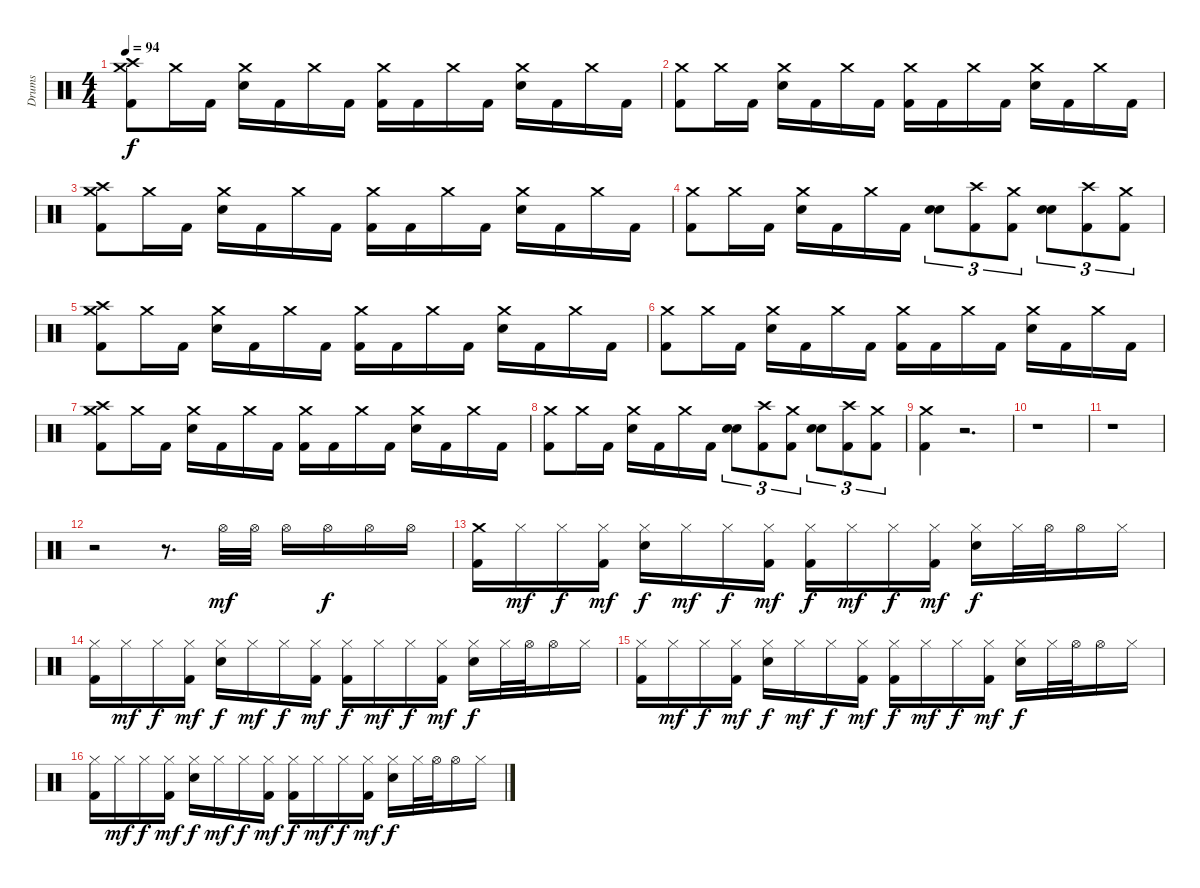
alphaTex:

\track ("Drums" "Drums") {instrument percussion}
\staff {score}
\articulation defaults
\ts (4 4)
\tempo 94
\clef neutral
\ks c
("Crash high (hit)" "Crash medium (hit)" "Kick (hit) 2").8{dy f} "Crash medium (hit)".16 "Kick (hit) 2".16 ("Crash medium (hit)" "Electric Snare (hit)").16 "Kick (hit) 2".16 "Crash medium (hit)".16 "Kick (hit) 2".16 ("Crash medium (hit)" "Kick (hit) 2").16 "Kick (hit) 2".16 "Crash medium (hit)".16 "Kick (hit) 2".16 ("Electric Snare (hit)" "Crash medium (hit)").16 "Kick (hit) 2".16 "Crash medium (hit)".16 "Kick (hit) 2".16 |
("Crash medium (hit)" "Kick (hit) 2").8 "Crash medium (hit)".16 "Kick (hit) 2".16 ("Crash medium (hit)" "Electric Snare (hit)").16 "Kick (hit) 2".16 "Crash medium (hit)".16 "Kick (hit) 2".16 ("Crash medium (hit)" "Kick (hit) 2").16 "Kick (hit) 2".16 "Crash medium (hit)".16 "Kick (hit) 2".16 ("Electric Snare (hit)" "Crash medium (hit)").16 "Kick (hit) 2".16 "Crash medium (hit)".16 "Kick (hit) 2".16 |
("Crash high (hit)" "Crash medium (hit)" "Kick (hit) 2").8 "Crash medium (hit)".16 "Kick (hit) 2".16 ("Crash medium (hit)" "Electric Snare (hit)").16 "Kick (hit) 2".16 "Crash medium (hit)".16 "Kick (hit) 2".16 ("Crash medium (hit)" "Kick (hit) 2").16 "Kick (hit) 2".16 "Crash medium (hit)".16 "Kick (hit) 2".16 ("Electric Snare (hit)" "Crash medium (hit)").16 "Kick (hit) 2".16 "Crash medium (hit)".16 "Kick (hit) 2".16 |
("Crash medium (hit)" "Kick (hit) 2").8 "Crash medium (hit)".16 "Kick (hit) 2".16 ("Crash medium (hit)" "Electric Snare (hit)").16 "Kick (hit) 2".16 "Crash medium (hit)".16 "Kick (hit) 2".16 ("Snare (hit) 2" "Electric Snare (hit)").8{tu (3 2)} ("Crash high (hit)" "Kick (hit) 2").8{tu (3 2)} ("Crash medium (hit)" "Kick (hit) 2").8{tu (3 2)} ("Snare (hit) 2" "Electric Snare (hit)").8{tu (3 2)} ("Crash high (hit)" "Kick (hit) 2").8{tu (3 2)} ("Crash medium (hit)" "Kick (hit) 2").8{tu (3 2)} |
("Crash high (hit)" "Crash medium (hit)" "Kick (hit) 2").8 "Crash medium (hit)".16 "Kick (hit) 2".16 ("Crash medium (hit)" "Electric Snare (hit)").16 "Kick (hit) 2".16 "Crash medium (hit)".16 "Kick (hit) 2".16 ("Crash medium (hit)" "Kick (hit) 2").16 "Kick (hit) 2".16 "Crash medium (hit)".16 "Kick (hit) 2".16 ("Electric Snare (hit)" "Crash medium (hit)").16 "Kick (hit) 2".16 "Crash medium (hit)".16 "Kick (hit) 2".16 |
("Crash medium (hit)" "Kick (hit) 2").8 "Crash medium (hit)".16 "Kick (hit) 2".16 ("Crash medium (hit)" "Electric Snare (hit)").16 "Kick (hit) 2".16 "Crash medium (hit)".16 "Kick (hit) 2".16 ("Crash medium (hit)" "Kick (hit) 2").16 "Kick (hit) 2".16 "Crash medium (hit)".16 "Kick (hit) 2".16 ("Electric Snare (hit)" "Crash medium (hit)").16 "Kick (hit) 2".16 "Crash medium (hit)".16 "Kick (hit) 2".16 |
("Crash high (hit)" "Crash medium (hit)" "Kick (hit) 2").8 "Crash medium (hit)".16 "Kick (hit) 2".16 ("Crash medium (hit)" "Electric Snare (hit)").16 "Kick (hit) 2".16 "Crash medium (hit)".16 "Kick (hit) 2".16 ("Crash medium (hit)" "Kick (hit) 2").16 "Kick (hit) 2".16 "Crash medium (hit)".16 "Kick (hit) 2".16 ("Electric Snare (hit)" "Crash medium (hit)").16 "Kick (hit) 2".16 "Crash medium (hit)".16 "Kick (hit) 2".16 |
("Crash medium (hit)" "Kick (hit) 2").8 "Crash medium (hit)".16 "Kick (hit) 2".16 ("Crash medium (hit)" "Electric Snare (hit)").16 "Kick (hit) 2".16 "Crash medium (hit)".16 "Kick (hit) 2".16 ("Snare (hit) 2" "Electric Snare (hit)").8{tu (3 2)} ("Crash high (hit)" "Kick (hit) 2").8{tu (3 2)} ("Crash medium (hit)" "Kick (hit) 2").8{tu (3 2)} ("Snare (hit) 2" "Electric Snare (hit)").8{tu (3 2)} ("Crash high (hit)" "Kick (hit) 2").8{tu (3 2)} ("Crash medium (hit)" "Kick (hit) 2").8{tu (3 2)} |
("Crash medium (hit)" "Kick (hit) 2").4 r.2{d} |
r.1 |
r.1 |
r.2 r.8{d} "Hi-Hat (open)".32{dy mf} "Hi-Hat (open)".32 "Hi-Hat (open)".16 "Hi-Hat (open)".16{dy f} "Hi-Hat (open)".16 "Hi-Hat (open)".16 |
("Crash medium (hit)" "Kick (hit) 2").16 "Hi-Hat (closed)".16{dy mf} "Hi-Hat (closed)".16{dy f} ("Kick (hit) 2" "Hi-Hat (closed)").16{dy mf} ("Electric Snare (hit)" "Hi-Hat (closed)").16{dy f} "Hi-Hat (closed)".16{dy mf} "Hi-Hat (closed)".16{dy f} ("Kick (hit) 2" "Hi-Hat (closed)").16{dy mf} ("Kick (hit) 2" "Hi-Hat (closed)").16{dy f} "Hi-Hat (closed)".16{dy mf} "Hi-Hat (closed)".16{dy f} ("Kick (hit) 2" "Hi-Hat (closed)").16{dy mf} ("Electric Snare (hit)" "Hi-Hat (closed)").16{dy f} "Hi-Hat (closed)".32 "Hi-Hat (open)".32 "Hi-Hat (open)".16 "Hi-Hat (closed)".16 |
("Hi-Hat (closed)" "Kick (hit) 2").16 "Hi-Hat (closed)".16{dy mf} "Hi-Hat (closed)".16{dy f} ("Kick (hit) 2" "Hi-Hat (closed)").16{dy mf} ("Electric Snare (hit)" "Hi-Hat (closed)").16{dy f} "Hi-Hat (closed)".16{dy mf} "Hi-Hat (closed)".16{dy f} ("Kick (hit) 2" "Hi-Hat (closed)").16{dy mf} ("Kick (hit) 2" "Hi-Hat (closed)").16{dy f} "Hi-Hat (closed)".16{dy mf} "Hi-Hat (closed)".16{dy f} ("Kick (hit) 2" "Hi-Hat (closed)").16{dy mf} ("Electric Snare (hit)" "Hi-Hat (closed)").16{dy f} "Hi-Hat (closed)".32 "Hi-Hat (open)".32 "Hi-Hat (open)".16 "Hi-Hat (closed)".16 |
("Hi-Hat (closed)" "Kick (hit) 2").16 "Hi-Hat (closed)".16{dy mf} "Hi-Hat (closed)".16{dy f} ("Kick (hit) 2" "Hi-Hat (closed)").16{dy mf} ("Electric Snare (hit)" "Hi-Hat (closed)").16{dy f} "Hi-Hat (closed)".16{dy mf} "Hi-Hat (closed)".16{dy f} ("Kick (hit) 2" "Hi-Hat (closed)").16{dy mf} ("Kick (hit) 2" "Hi-Hat (closed)").16{dy f} "Hi-Hat (closed)".16{dy mf} "Hi-Hat (closed)".16{dy f} ("Kick (hit) 2" "Hi-Hat (closed)").16{dy mf} ("Electric Snare (hit)" "Hi-Hat (closed)").16{dy f} "Hi-Hat (closed)".32 "Hi-Hat (open)".32 "Hi-Hat (open)".16 "Hi-Hat (closed)".16 |
("Hi-Hat (closed)" "Kick (hit) 2").16 "Hi-Hat (closed)".16{dy mf} "Hi-Hat (closed)".16{dy f} ("Kick (hit) 2" "Hi-Hat (closed)").16{dy mf} ("Electric Snare (hit)" "Hi-Hat (closed)").16{dy f} "Hi-Hat (closed)".16{dy mf} "Hi-Hat (closed)".16{dy f} ("Kick (hit) 2" "Hi-Hat (closed)").16{dy mf} ("Kick (hit) 2" "Hi-Hat (closed)").16{dy f} "Hi-Hat (closed)".16{dy mf} "Hi-Hat (closed)".16{dy f} ("Kick (hit) 2" "Hi-Hat (closed)").16{dy mf} ("Electric Snare (hit)" "Hi-Hat (closed)").16{dy f} "Hi-Hat (closed)".32 "Hi-Hat (open)".32 "Hi-Hat (open)".16 "Hi-Hat (closed)".16
